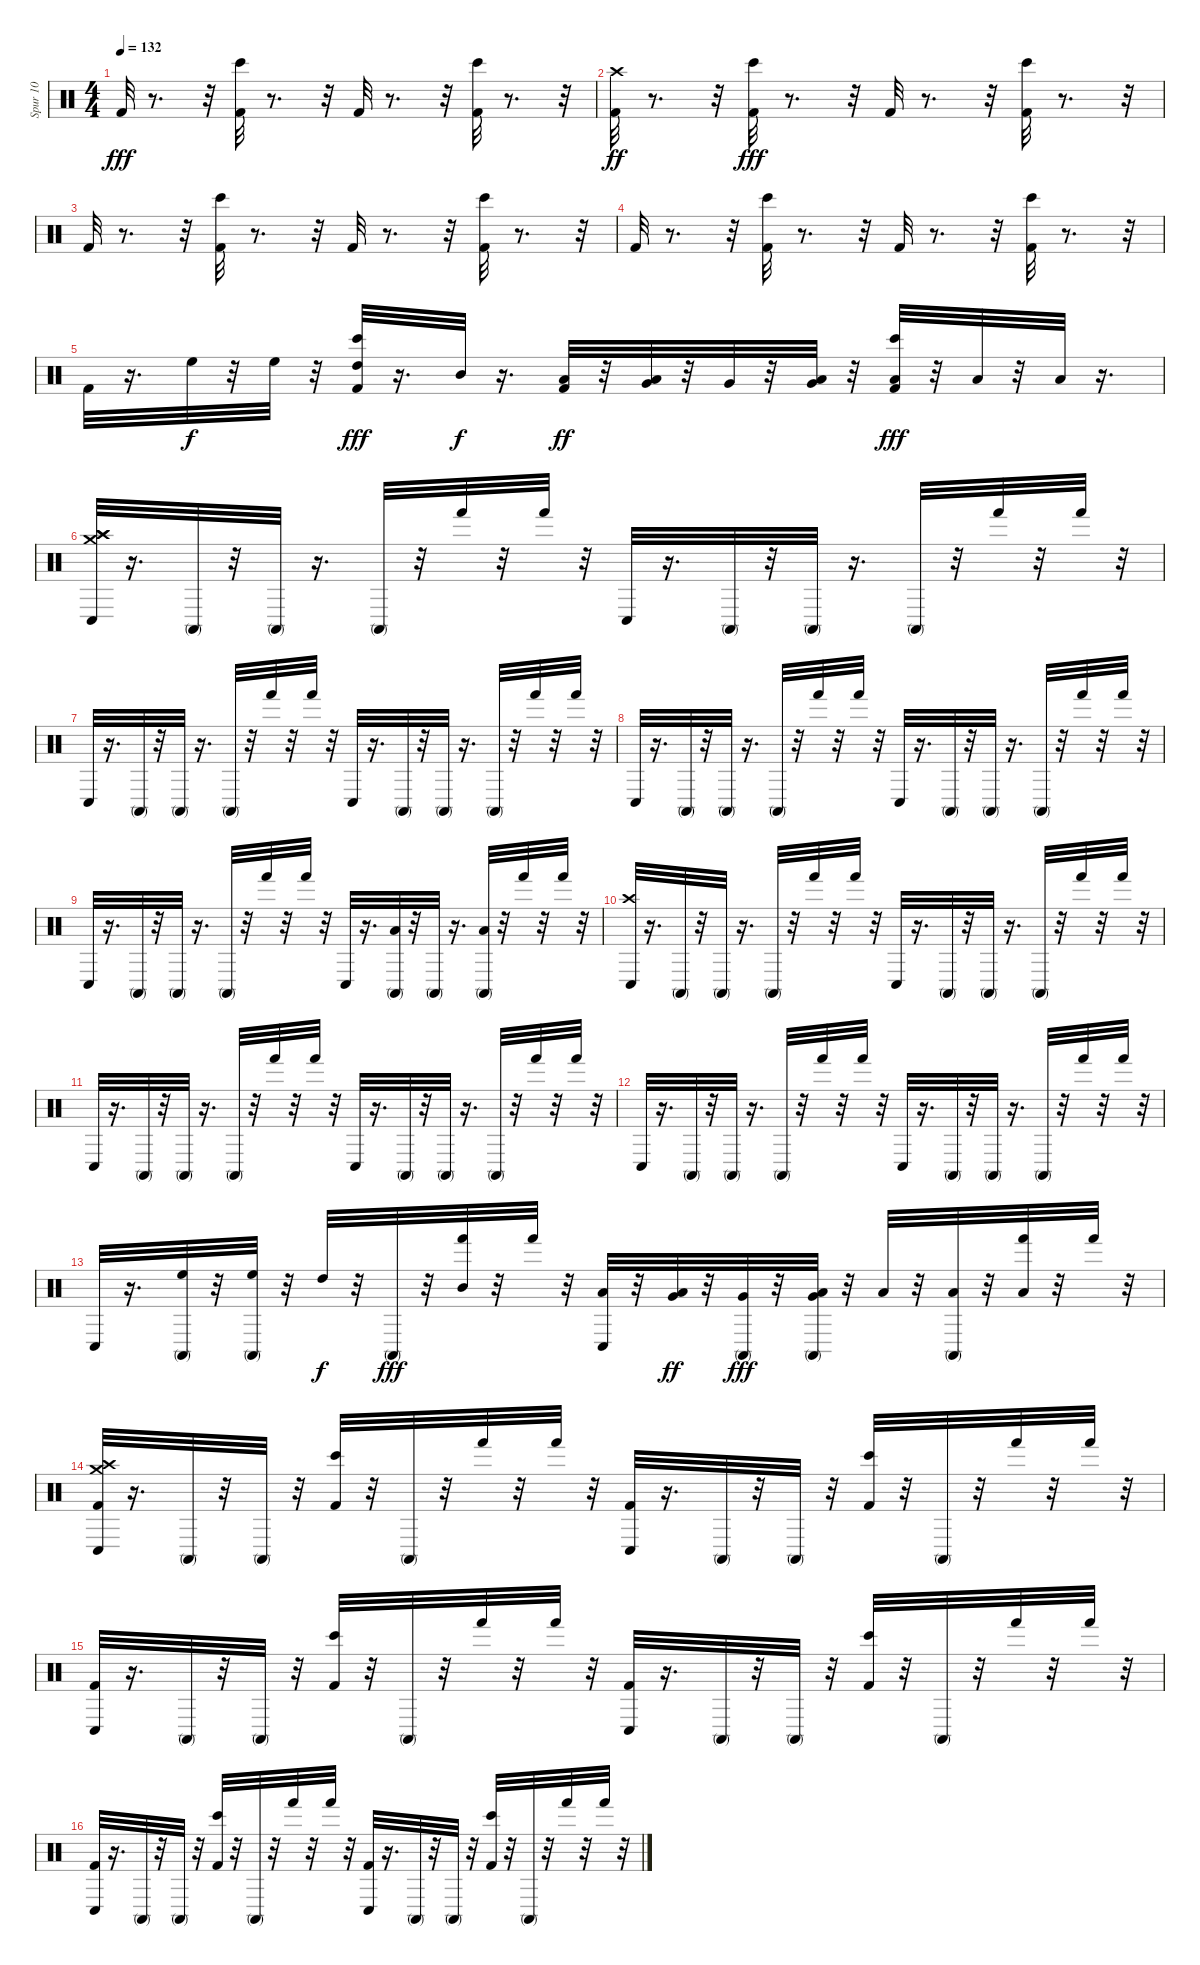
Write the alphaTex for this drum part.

\track ("Spur 10" "Spur 10") {instrument percussion}
\staff {score}
\articulation defaults
\ts (4 4)
\tempo 132
\clef neutral
\ks c "Kick (hit) 2".32{dy fff}
r.8{d} r.32 ("Bongo High (hit)" "Kick (hit) 2").32 r.8{d} r.32 "Kick (hit) 2".32 r.8{d} r.32 ("Bongo High (hit)" "Kick (hit) 2").32 r.8{d} r.32 |
("Kick (hit) 2" "Crash high (hit)").32{dy ff} r.8{d} r.32 ("Bongo High (hit)" "Kick (hit) 2").32{dy fff} r.8{d} r.32 "Kick (hit) 2".32 r.8{d} r.32 ("Bongo High (hit)" "Kick (hit) 2").32 r.8{d} r.32 |
"Kick (hit) 2".32 r.8{d} r.32 ("Bongo High (hit)" "Kick (hit) 2").32 r.8{d} r.32 "Kick (hit) 2".32 r.8{d} r.32 ("Bongo High (hit)" "Kick (hit) 2").32 r.8{d} r.32 |
"Kick (hit) 2".32 r.8{d} r.32 ("Bongo High (hit)" "Kick (hit) 2").32 r.8{d} r.32 "Kick (hit) 2".32 r.8{d} r.32 ("Bongo High (hit)" "Kick (hit) 2").32 r.8{d} r.32 |
"Kick (hit) 2".32 r.16{d} "High Floor Tom (hit)".32{dy f} r.32 "High Floor Tom (hit)".32 r.32 ("Bongo High (hit)" "Kick (hit) 2" "High Tom (hit)").32{dy fff} r.16{d} "Mid Tom (hit)".32{dy f} r.16{d} ("Kick (hit) 2" "Low Tom (hit)").32{dy ff} r.32 ("Very Low Tom (hit)" "Low Tom (hit)").32 r.32 "Very Low Tom (hit)".32 r.32 ("Very Low Tom (hit)" "Low Floor Tom (hit)").32 r.32 ("Bongo High (hit)" "Kick (hit) 2" "Low Floor Tom (hit)").32{dy fff} r.32 "Low Floor Tom (hit)".32 r.32 "Low Floor Tom (hit)".32 r.16{d} |
("Crash medium (hit)" "Crash high (hit)" "Crash high (hit)" "Conga low (hit)").32 r.16{d} "Conga high (mute)".32 r.32 "Conga high (mute)".32 r.16{d} "Conga high (mute)".32 r.32 "Hand (hit)".32 r.32 "Hand (hit)".32 r.32 "Conga low (hit)".32 r.16{d} "Conga high (mute)".32 r.32 "Conga high (mute)".32 r.16{d} "Conga high (mute)".32 r.32 "Hand (hit)".32 r.32 "Hand (hit)".32 r.32 |
"Conga low (hit)".32 r.16{d} "Conga high (mute)".32 r.32 "Conga high (mute)".32 r.16{d} "Conga high (mute)".32 r.32 "Hand (hit)".32 r.32 "Hand (hit)".32 r.32 "Conga low (hit)".32 r.16{d} "Conga high (mute)".32 r.32 "Conga high (mute)".32 r.16{d} "Conga high (mute)".32 r.32 "Hand (hit)".32 r.32 "Hand (hit)".32 r.32 |
"Conga low (hit)".32 r.16{d} "Conga high (mute)".32 r.32 "Conga high (mute)".32 r.16{d} "Conga high (mute)".32 r.32 "Hand (hit)".32 r.32 "Hand (hit)".32 r.32 "Conga low (hit)".32 r.16{d} "Conga high (mute)".32 r.32 "Conga high (mute)".32 r.16{d} "Conga high (mute)".32 r.32 "Hand (hit)".32 r.32 "Hand (hit)".32 r.32 |
"Conga low (hit)".32 r.16{d} "Conga high (mute)".32 r.32 "Conga high (mute)".32 r.16{d} "Conga high (mute)".32 r.32 "Hand (hit)".32 r.32 "Hand (hit)".32 r.32 "Conga low (hit)".32 r.16{d} ("Low Tom (hit)" "Conga high (mute)").32 r.32 "Conga high (mute)".32 r.16{d} ("Low Floor Tom (hit)" "Conga high (mute)").32 r.32 "Hand (hit)".32 r.32 "Hand (hit)".32 r.32 |
("Crash high (hit)" "Conga low (hit)").32 r.16{d} "Conga high (mute)".32 r.32 "Conga high (mute)".32 r.16{d} "Conga high (mute)".32 r.32 "Hand (hit)".32 r.32 "Hand (hit)".32 r.32 "Conga low (hit)".32 r.16{d} "Conga high (mute)".32 r.32 "Conga high (mute)".32 r.16{d} "Conga high (mute)".32 r.32 "Hand (hit)".32 r.32 "Hand (hit)".32 r.32 |
"Conga low (hit)".32 r.16{d} "Conga high (mute)".32 r.32 "Conga high (mute)".32 r.16{d} "Conga high (mute)".32 r.32 "Hand (hit)".32 r.32 "Hand (hit)".32 r.32 "Conga low (hit)".32 r.16{d} "Conga high (mute)".32 r.32 "Conga high (mute)".32 r.16{d} "Conga high (mute)".32 r.32 "Hand (hit)".32 r.32 "Hand (hit)".32 r.32 |
"Conga low (hit)".32 r.16{d} "Conga high (mute)".32 r.32 "Conga high (mute)".32 r.16{d} "Conga high (mute)".32 r.32 "Hand (hit)".32 r.32 "Hand (hit)".32 r.32 "Conga low (hit)".32 r.16{d} "Conga high (mute)".32 r.32 "Conga high (mute)".32 r.16{d} "Conga high (mute)".32 r.32 "Hand (hit)".32 r.32 "Hand (hit)".32 r.32 |
"Conga low (hit)".32 r.16{d} ("High Floor Tom (hit)" "Conga high (mute)").32 r.32 ("High Floor Tom (hit)" "Conga high (mute)").32 r.32 "High Tom (hit)".32{dy f} r.32 "Conga high (mute)".32{dy fff} r.32 ("Mid Tom (hit)" "Hand (hit)").32 r.32 "Hand (hit)".32 r.32 ("Low Tom (hit)" "Conga low (hit)").32 r.32 ("Very Low Tom (hit)" "Low Tom (hit)").32{dy ff} r.32 ("Very Low Tom (hit)" "Conga high (mute)").32{dy fff} r.32 ("Very Low Tom (hit)" "Low Floor Tom (hit)" "Conga high (mute)").32 r.32 "Low Floor Tom (hit)".32 r.32 ("Low Floor Tom (hit)" "Conga high (mute)").32 r.32 ("Low Floor Tom (hit)" "Hand (hit)").32 r.32 "Hand (hit)".32 r.32 |
("Crash medium (hit)" "Kick (hit) 2" "Crash high (hit)" "Conga low (hit)").32 r.16{d} "Conga high (mute)".32 r.32 "Conga high (mute)".32 r.32 ("Bongo High (hit)" "Kick (hit) 2").32 r.32 "Conga high (mute)".32 r.32 "Hand (hit)".32 r.32 "Hand (hit)".32 r.32 ("Kick (hit) 2" "Conga low (hit)").32 r.16{d} "Conga high (mute)".32 r.32 "Conga high (mute)".32 r.32 ("Bongo High (hit)" "Kick (hit) 2").32 r.32 "Conga high (mute)".32 r.32 "Hand (hit)".32 r.32 "Hand (hit)".32 r.32 |
("Kick (hit) 2" "Conga low (hit)").32 r.16{d} "Conga high (mute)".32 r.32 "Conga high (mute)".32 r.32 ("Bongo High (hit)" "Kick (hit) 2").32 r.32 "Conga high (mute)".32 r.32 "Hand (hit)".32 r.32 "Hand (hit)".32 r.32 ("Kick (hit) 2" "Conga low (hit)").32 r.16{d} "Conga high (mute)".32 r.32 "Conga high (mute)".32 r.32 ("Bongo High (hit)" "Kick (hit) 2").32 r.32 "Conga high (mute)".32 r.32 "Hand (hit)".32 r.32 "Hand (hit)".32 r.32 |
("Kick (hit) 2" "Conga low (hit)").32 r.16{d} "Conga high (mute)".32 r.32 "Conga high (mute)".32 r.32 ("Bongo High (hit)" "Kick (hit) 2").32 r.32 "Conga high (mute)".32 r.32 "Hand (hit)".32 r.32 "Hand (hit)".32 r.32 ("Kick (hit) 2" "Conga low (hit)").32 r.16{d} "Conga high (mute)".32 r.32 "Conga high (mute)".32 r.32 ("Bongo High (hit)" "Kick (hit) 2").32 r.32 "Conga high (mute)".32 r.32 "Hand (hit)".32 r.32 "Hand (hit)".32 r.32
